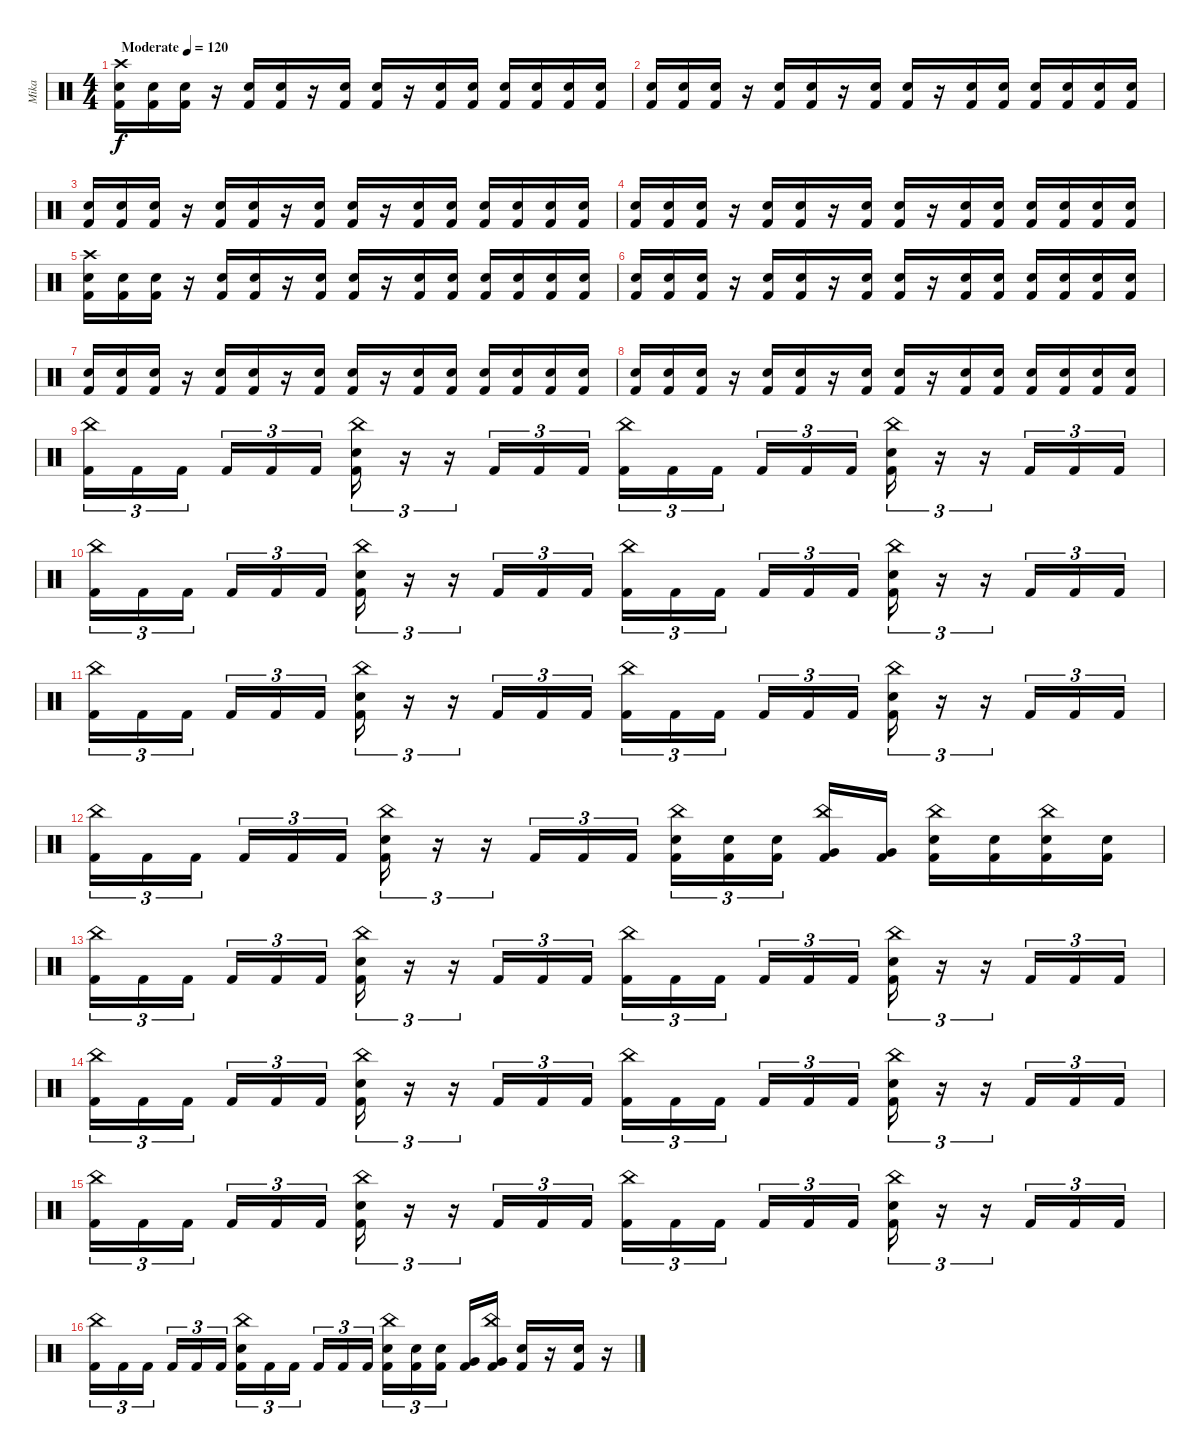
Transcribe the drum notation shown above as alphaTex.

\track ("Mika" "Mika") {instrument percussion}
\staff {score}
\articulation defaults
\ts (4 4)
\tempo (120 "Moderate")
\clef neutral
\ks c
("Crash high (hit)" "Electric Snare (hit)" "Kick (hit) 2").16{dy f} ("Electric Snare (hit)" "Kick (hit) 2").16 ("Electric Snare (hit)" "Kick (hit) 2").16 r.16 ("Electric Snare (hit)" "Kick (hit) 2").16 ("Electric Snare (hit)" "Kick (hit) 2").16 r.16 ("Electric Snare (hit)" "Kick (hit) 2").16 ("Electric Snare (hit)" "Kick (hit) 2").16 r.16 ("Electric Snare (hit)" "Kick (hit) 2").16 ("Electric Snare (hit)" "Kick (hit) 2").16 ("Electric Snare (hit)" "Kick (hit) 2").16 ("Electric Snare (hit)" "Kick (hit) 2").16 ("Electric Snare (hit)" "Kick (hit) 2").16 ("Electric Snare (hit)" "Kick (hit) 2").16 |
("Electric Snare (hit)" "Kick (hit) 2").16 ("Electric Snare (hit)" "Kick (hit) 2").16 ("Electric Snare (hit)" "Kick (hit) 2").16 r.16 ("Electric Snare (hit)" "Kick (hit) 2").16 ("Electric Snare (hit)" "Kick (hit) 2").16 r.16 ("Electric Snare (hit)" "Kick (hit) 2").16 ("Electric Snare (hit)" "Kick (hit) 2").16 r.16 ("Electric Snare (hit)" "Kick (hit) 2").16 ("Electric Snare (hit)" "Kick (hit) 2").16 ("Electric Snare (hit)" "Kick (hit) 2").16 ("Electric Snare (hit)" "Kick (hit) 2").16 ("Electric Snare (hit)" "Kick (hit) 2").16 ("Electric Snare (hit)" "Kick (hit) 2").16 |
("Electric Snare (hit)" "Kick (hit) 2").16 ("Electric Snare (hit)" "Kick (hit) 2").16 ("Electric Snare (hit)" "Kick (hit) 2").16 r.16 ("Electric Snare (hit)" "Kick (hit) 2").16 ("Electric Snare (hit)" "Kick (hit) 2").16 r.16 ("Electric Snare (hit)" "Kick (hit) 2").16 ("Electric Snare (hit)" "Kick (hit) 2").16 r.16 ("Electric Snare (hit)" "Kick (hit) 2").16 ("Electric Snare (hit)" "Kick (hit) 2").16 ("Electric Snare (hit)" "Kick (hit) 2").16 ("Electric Snare (hit)" "Kick (hit) 2").16 ("Electric Snare (hit)" "Kick (hit) 2").16 ("Electric Snare (hit)" "Kick (hit) 2").16 |
("Electric Snare (hit)" "Kick (hit) 2").16 ("Electric Snare (hit)" "Kick (hit) 2").16 ("Electric Snare (hit)" "Kick (hit) 2").16 r.16 ("Electric Snare (hit)" "Kick (hit) 2").16 ("Electric Snare (hit)" "Kick (hit) 2").16 r.16 ("Electric Snare (hit)" "Kick (hit) 2").16 ("Electric Snare (hit)" "Kick (hit) 2").16 r.16 ("Electric Snare (hit)" "Kick (hit) 2").16 ("Electric Snare (hit)" "Kick (hit) 2").16 ("Electric Snare (hit)" "Kick (hit) 2").16 ("Electric Snare (hit)" "Kick (hit) 2").16 ("Electric Snare (hit)" "Kick (hit) 2").16 ("Electric Snare (hit)" "Kick (hit) 2").16 |
("Crash high (hit)" "Electric Snare (hit)" "Kick (hit) 2").16 ("Electric Snare (hit)" "Kick (hit) 2").16 ("Electric Snare (hit)" "Kick (hit) 2").16 r.16 ("Electric Snare (hit)" "Kick (hit) 2").16 ("Electric Snare (hit)" "Kick (hit) 2").16 r.16 ("Electric Snare (hit)" "Kick (hit) 2").16 ("Electric Snare (hit)" "Kick (hit) 2").16 r.16 ("Electric Snare (hit)" "Kick (hit) 2").16 ("Electric Snare (hit)" "Kick (hit) 2").16 ("Electric Snare (hit)" "Kick (hit) 2").16 ("Electric Snare (hit)" "Kick (hit) 2").16 ("Electric Snare (hit)" "Kick (hit) 2").16 ("Electric Snare (hit)" "Kick (hit) 2").16 |
("Electric Snare (hit)" "Kick (hit) 2").16 ("Electric Snare (hit)" "Kick (hit) 2").16 ("Electric Snare (hit)" "Kick (hit) 2").16 r.16 ("Electric Snare (hit)" "Kick (hit) 2").16 ("Electric Snare (hit)" "Kick (hit) 2").16 r.16 ("Electric Snare (hit)" "Kick (hit) 2").16 ("Electric Snare (hit)" "Kick (hit) 2").16 r.16 ("Electric Snare (hit)" "Kick (hit) 2").16 ("Electric Snare (hit)" "Kick (hit) 2").16 ("Electric Snare (hit)" "Kick (hit) 2").16 ("Electric Snare (hit)" "Kick (hit) 2").16 ("Electric Snare (hit)" "Kick (hit) 2").16 ("Electric Snare (hit)" "Kick (hit) 2").16 |
("Electric Snare (hit)" "Kick (hit) 2").16 ("Electric Snare (hit)" "Kick (hit) 2").16 ("Electric Snare (hit)" "Kick (hit) 2").16 r.16 ("Electric Snare (hit)" "Kick (hit) 2").16 ("Electric Snare (hit)" "Kick (hit) 2").16 r.16 ("Electric Snare (hit)" "Kick (hit) 2").16 ("Electric Snare (hit)" "Kick (hit) 2").16 r.16 ("Electric Snare (hit)" "Kick (hit) 2").16 ("Electric Snare (hit)" "Kick (hit) 2").16 ("Electric Snare (hit)" "Kick (hit) 2").16 ("Electric Snare (hit)" "Kick (hit) 2").16 ("Electric Snare (hit)" "Kick (hit) 2").16 ("Electric Snare (hit)" "Kick (hit) 2").16 |
("Electric Snare (hit)" "Kick (hit) 2").16 ("Electric Snare (hit)" "Kick (hit) 2").16 ("Electric Snare (hit)" "Kick (hit) 2").16 r.16 ("Electric Snare (hit)" "Kick (hit) 2").16 ("Electric Snare (hit)" "Kick (hit) 2").16 r.16 ("Electric Snare (hit)" "Kick (hit) 2").16 ("Electric Snare (hit)" "Kick (hit) 2").16 r.16 ("Electric Snare (hit)" "Kick (hit) 2").16 ("Electric Snare (hit)" "Kick (hit) 2").16 ("Electric Snare (hit)" "Kick (hit) 2").16 ("Electric Snare (hit)" "Kick (hit) 2").16 ("Electric Snare (hit)" "Kick (hit) 2").16 ("Electric Snare (hit)" "Kick (hit) 2").16 |
("China (hit)" "Kick (hit) 2").16{tu (3 2)} "Kick (hit) 2".16{tu (3 2)} "Kick (hit) 2".16{tu (3 2) beam splitsecondary} "Kick (hit) 2".16{tu (3 2)} "Kick (hit) 2".16{tu (3 2)} "Kick (hit) 2".16{tu (3 2)} ("China (hit)" "Electric Snare (hit)" "Kick (hit) 2").16{tu (3 2)} r.16{tu (3 2)} r.16{tu (3 2)} "Kick (hit) 2".16{tu (3 2)} "Kick (hit) 2".16{tu (3 2)} "Kick (hit) 2".16{tu (3 2)} ("China (hit)" "Kick (hit) 2").16{tu (3 2)} "Kick (hit) 2".16{tu (3 2)} "Kick (hit) 2".16{tu (3 2) beam splitsecondary} "Kick (hit) 2".16{tu (3 2)} "Kick (hit) 2".16{tu (3 2)} "Kick (hit) 2".16{tu (3 2)} ("China (hit)" "Electric Snare (hit)" "Kick (hit) 2").16{tu (3 2)} r.16{tu (3 2)} r.16{tu (3 2)} "Kick (hit) 2".16{tu (3 2)} "Kick (hit) 2".16{tu (3 2)} "Kick (hit) 2".16{tu (3 2)} |
("China (hit)" "Kick (hit) 2").16{tu (3 2)} "Kick (hit) 2".16{tu (3 2)} "Kick (hit) 2".16{tu (3 2) beam splitsecondary} "Kick (hit) 2".16{tu (3 2)} "Kick (hit) 2".16{tu (3 2)} "Kick (hit) 2".16{tu (3 2)} ("China (hit)" "Electric Snare (hit)" "Kick (hit) 2").16{tu (3 2)} r.16{tu (3 2)} r.16{tu (3 2)} "Kick (hit) 2".16{tu (3 2)} "Kick (hit) 2".16{tu (3 2)} "Kick (hit) 2".16{tu (3 2)} ("China (hit)" "Kick (hit) 2").16{tu (3 2)} "Kick (hit) 2".16{tu (3 2)} "Kick (hit) 2".16{tu (3 2) beam splitsecondary} "Kick (hit) 2".16{tu (3 2)} "Kick (hit) 2".16{tu (3 2)} "Kick (hit) 2".16{tu (3 2)} ("China (hit)" "Electric Snare (hit)" "Kick (hit) 2").16{tu (3 2)} r.16{tu (3 2)} r.16{tu (3 2)} "Kick (hit) 2".16{tu (3 2)} "Kick (hit) 2".16{tu (3 2)} "Kick (hit) 2".16{tu (3 2)} |
("China (hit)" "Kick (hit) 2").16{tu (3 2)} "Kick (hit) 2".16{tu (3 2)} "Kick (hit) 2".16{tu (3 2) beam splitsecondary} "Kick (hit) 2".16{tu (3 2)} "Kick (hit) 2".16{tu (3 2)} "Kick (hit) 2".16{tu (3 2)} ("China (hit)" "Electric Snare (hit)" "Kick (hit) 2").16{tu (3 2)} r.16{tu (3 2)} r.16{tu (3 2)} "Kick (hit) 2".16{tu (3 2)} "Kick (hit) 2".16{tu (3 2)} "Kick (hit) 2".16{tu (3 2)} ("China (hit)" "Kick (hit) 2").16{tu (3 2)} "Kick (hit) 2".16{tu (3 2)} "Kick (hit) 2".16{tu (3 2) beam splitsecondary} "Kick (hit) 2".16{tu (3 2)} "Kick (hit) 2".16{tu (3 2)} "Kick (hit) 2".16{tu (3 2)} ("China (hit)" "Electric Snare (hit)" "Kick (hit) 2").16{tu (3 2)} r.16{tu (3 2)} r.16{tu (3 2)} "Kick (hit) 2".16{tu (3 2)} "Kick (hit) 2".16{tu (3 2)} "Kick (hit) 2".16{tu (3 2)} |
("China (hit)" "Kick (hit) 2").16{tu (3 2)} "Kick (hit) 2".16{tu (3 2)} "Kick (hit) 2".16{tu (3 2) beam splitsecondary} "Kick (hit) 2".16{tu (3 2)} "Kick (hit) 2".16{tu (3 2)} "Kick (hit) 2".16{tu (3 2)} ("China (hit)" "Electric Snare (hit)" "Kick (hit) 2").16{tu (3 2)} r.16{tu (3 2)} r.16{tu (3 2)} "Kick (hit) 2".16{tu (3 2)} "Kick (hit) 2".16{tu (3 2)} "Kick (hit) 2".16{tu (3 2)} ("China (hit)" "Electric Snare (hit)" "Kick (hit) 2").16{tu (3 2)} ("Electric Snare (hit)" "Kick (hit) 2").16{tu (3 2)} ("Electric Snare (hit)" "Kick (hit) 2").16{tu (3 2) beam splitsecondary} ("China (hit)" "Very Low Tom (hit)" "Kick (hit) 2").16 ("Very Low Tom (hit)" "Kick (hit) 2").16 ("China (hit)" "Electric Snare (hit)" "Kick (hit) 2").16 ("Electric Snare (hit)" "Kick (hit) 2").16 ("China (hit)" "Snare (hit) 2" "Kick (hit) 2").16 ("Snare (hit) 2" "Kick (hit) 2").16 |
("China (hit)" "Kick (hit) 2").16{tu (3 2)} "Kick (hit) 2".16{tu (3 2)} "Kick (hit) 2".16{tu (3 2) beam splitsecondary} "Kick (hit) 2".16{tu (3 2)} "Kick (hit) 2".16{tu (3 2)} "Kick (hit) 2".16{tu (3 2)} ("China (hit)" "Electric Snare (hit)" "Kick (hit) 2").16{tu (3 2)} r.16{tu (3 2)} r.16{tu (3 2)} "Kick (hit) 2".16{tu (3 2)} "Kick (hit) 2".16{tu (3 2)} "Kick (hit) 2".16{tu (3 2)} ("China (hit)" "Kick (hit) 2").16{tu (3 2)} "Kick (hit) 2".16{tu (3 2)} "Kick (hit) 2".16{tu (3 2) beam splitsecondary} "Kick (hit) 2".16{tu (3 2)} "Kick (hit) 2".16{tu (3 2)} "Kick (hit) 2".16{tu (3 2)} ("China (hit)" "Electric Snare (hit)" "Kick (hit) 2").16{tu (3 2)} r.16{tu (3 2)} r.16{tu (3 2)} "Kick (hit) 2".16{tu (3 2)} "Kick (hit) 2".16{tu (3 2)} "Kick (hit) 2".16{tu (3 2)} |
("China (hit)" "Kick (hit) 2").16{tu (3 2)} "Kick (hit) 2".16{tu (3 2)} "Kick (hit) 2".16{tu (3 2) beam splitsecondary} "Kick (hit) 2".16{tu (3 2)} "Kick (hit) 2".16{tu (3 2)} "Kick (hit) 2".16{tu (3 2)} ("China (hit)" "Electric Snare (hit)" "Kick (hit) 2").16{tu (3 2)} r.16{tu (3 2)} r.16{tu (3 2)} "Kick (hit) 2".16{tu (3 2)} "Kick (hit) 2".16{tu (3 2)} "Kick (hit) 2".16{tu (3 2)} ("China (hit)" "Kick (hit) 2").16{tu (3 2)} "Kick (hit) 2".16{tu (3 2)} "Kick (hit) 2".16{tu (3 2) beam splitsecondary} "Kick (hit) 2".16{tu (3 2)} "Kick (hit) 2".16{tu (3 2)} "Kick (hit) 2".16{tu (3 2)} ("China (hit)" "Electric Snare (hit)" "Kick (hit) 2").16{tu (3 2)} r.16{tu (3 2)} r.16{tu (3 2)} "Kick (hit) 2".16{tu (3 2)} "Kick (hit) 2".16{tu (3 2)} "Kick (hit) 2".16{tu (3 2)} |
("China (hit)" "Kick (hit) 2").16{tu (3 2)} "Kick (hit) 2".16{tu (3 2)} "Kick (hit) 2".16{tu (3 2) beam splitsecondary} "Kick (hit) 2".16{tu (3 2)} "Kick (hit) 2".16{tu (3 2)} "Kick (hit) 2".16{tu (3 2)} ("China (hit)" "Electric Snare (hit)" "Kick (hit) 2").16{tu (3 2)} r.16{tu (3 2)} r.16{tu (3 2)} "Kick (hit) 2".16{tu (3 2)} "Kick (hit) 2".16{tu (3 2)} "Kick (hit) 2".16{tu (3 2)} ("China (hit)" "Kick (hit) 2").16{tu (3 2)} "Kick (hit) 2".16{tu (3 2)} "Kick (hit) 2".16{tu (3 2) beam splitsecondary} "Kick (hit) 2".16{tu (3 2)} "Kick (hit) 2".16{tu (3 2)} "Kick (hit) 2".16{tu (3 2)} ("China (hit)" "Electric Snare (hit)" "Kick (hit) 2").16{tu (3 2)} r.16{tu (3 2)} r.16{tu (3 2)} "Kick (hit) 2".16{tu (3 2)} "Kick (hit) 2".16{tu (3 2)} "Kick (hit) 2".16{tu (3 2)} |
("China (hit)" "Kick (hit) 2").16{tu (3 2)} "Kick (hit) 2".16{tu (3 2)} "Kick (hit) 2".16{tu (3 2) beam splitsecondary} "Kick (hit) 2".16{tu (3 2)} "Kick (hit) 2".16{tu (3 2)} "Kick (hit) 2".16{tu (3 2)} ("China (hit)" "Electric Snare (hit)" "Kick (hit) 2").16{tu (3 2)} "Kick (hit) 2".16{tu (3 2)} "Kick (hit) 2".16{tu (3 2) beam splitsecondary} "Kick (hit) 2".16{tu (3 2)} "Kick (hit) 2".16{tu (3 2)} "Kick (hit) 2".16{tu (3 2)} ("China (hit)" "Electric Snare (hit)" "Kick (hit) 2").16{tu (3 2)} ("Electric Snare (hit)" "Kick (hit) 2").16{tu (3 2)} ("Electric Snare (hit)" "Kick (hit) 2").16{tu (3 2) beam splitsecondary} ("Very Low Tom (hit)" "Kick (hit) 2").16 ("China (hit)" "Very Low Tom (hit)" "Kick (hit) 2").16 ("Electric Snare (hit)" "Kick (hit) 2").16 r.16 ("Snare (hit) 2" "Kick (hit) 2").16 r.16
